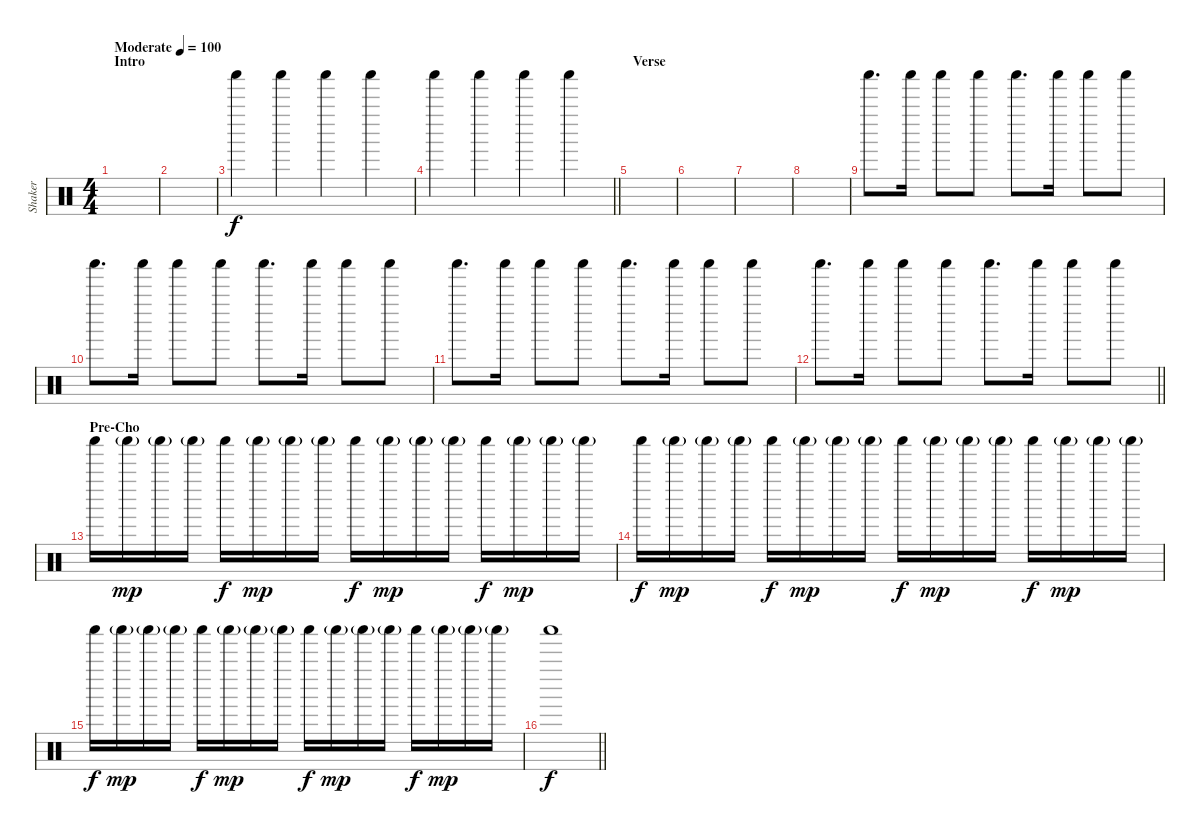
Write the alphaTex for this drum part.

\track ("Shaker" "Shaker") {instrument percussion}
\staff {score}
\articulation defaults
\ts (4 4)
\section ("" "Intro")
\tempo (100 "Moderate")
\clef neutral
\ks c
|
|
"Shaker (hit)".4 "Shaker (hit)".4 "Shaker (hit)".4 "Shaker (hit)".4 |
\barLineRight lightlight "Shaker (hit)".4 "Shaker (hit)".4 "Shaker (hit)".4 "Shaker (hit)".4
|
\section ("" "Verse")
|
|
|
|
"Shaker (hit)".8{d} "Shaker (hit)".16 "Shaker (hit)".8 "Shaker (hit)".8 "Shaker (hit)".8{d} "Shaker (hit)".16 "Shaker (hit)".8 "Shaker (hit)".8 |
"Shaker (hit)".8{d} "Shaker (hit)".16 "Shaker (hit)".8 "Shaker (hit)".8 "Shaker (hit)".8{d} "Shaker (hit)".16 "Shaker (hit)".8 "Shaker (hit)".8 |
"Shaker (hit)".8{d} "Shaker (hit)".16 "Shaker (hit)".8 "Shaker (hit)".8 "Shaker (hit)".8{d} "Shaker (hit)".16 "Shaker (hit)".8 "Shaker (hit)".8 |
\barLineRight lightlight "Shaker (hit)".8{d} "Shaker (hit)".16 "Shaker (hit)".8 "Shaker (hit)".8 "Shaker (hit)".8{d} "Shaker (hit)".16 "Shaker (hit)".8 "Shaker (hit)".8
|
\section ("" "Pre-Cho")
"Shaker (hit)".16 "Shaker (hit)"{g}.16{dy mp} "Shaker (hit)"{g}.16 "Shaker (hit)"{g}.16 "Shaker (hit)".16{dy f} "Shaker (hit)"{g}.16{dy mp} "Shaker (hit)"{g}.16 "Shaker (hit)"{g}.16 "Shaker (hit)".16{dy f} "Shaker (hit)"{g}.16{dy mp} "Shaker (hit)"{g}.16 "Shaker (hit)"{g}.16 "Shaker (hit)".16{dy f} "Shaker (hit)"{g}.16{dy mp} "Shaker (hit)"{g}.16 "Shaker (hit)"{g}.16 |
"Shaker (hit)".16{dy f} "Shaker (hit)"{g}.16{dy mp} "Shaker (hit)"{g}.16 "Shaker (hit)"{g}.16 "Shaker (hit)".16{dy f} "Shaker (hit)"{g}.16{dy mp} "Shaker (hit)"{g}.16 "Shaker (hit)"{g}.16 "Shaker (hit)".16{dy f} "Shaker (hit)"{g}.16{dy mp} "Shaker (hit)"{g}.16 "Shaker (hit)"{g}.16 "Shaker (hit)".16{dy f} "Shaker (hit)"{g}.16{dy mp} "Shaker (hit)"{g}.16 "Shaker (hit)"{g}.16 |
"Shaker (hit)".16{dy f} "Shaker (hit)"{g}.16{dy mp} "Shaker (hit)"{g}.16 "Shaker (hit)"{g}.16 "Shaker (hit)".16{dy f} "Shaker (hit)"{g}.16{dy mp} "Shaker (hit)"{g}.16 "Shaker (hit)"{g}.16 "Shaker (hit)".16{dy f} "Shaker (hit)"{g}.16{dy mp} "Shaker (hit)"{g}.16 "Shaker (hit)"{g}.16 "Shaker (hit)".16{dy f} "Shaker (hit)"{g}.16{dy mp} "Shaker (hit)"{g}.16 "Shaker (hit)"{g}.16 |
\barLineRight lightlight "Shaker (hit)".1{dy f}
